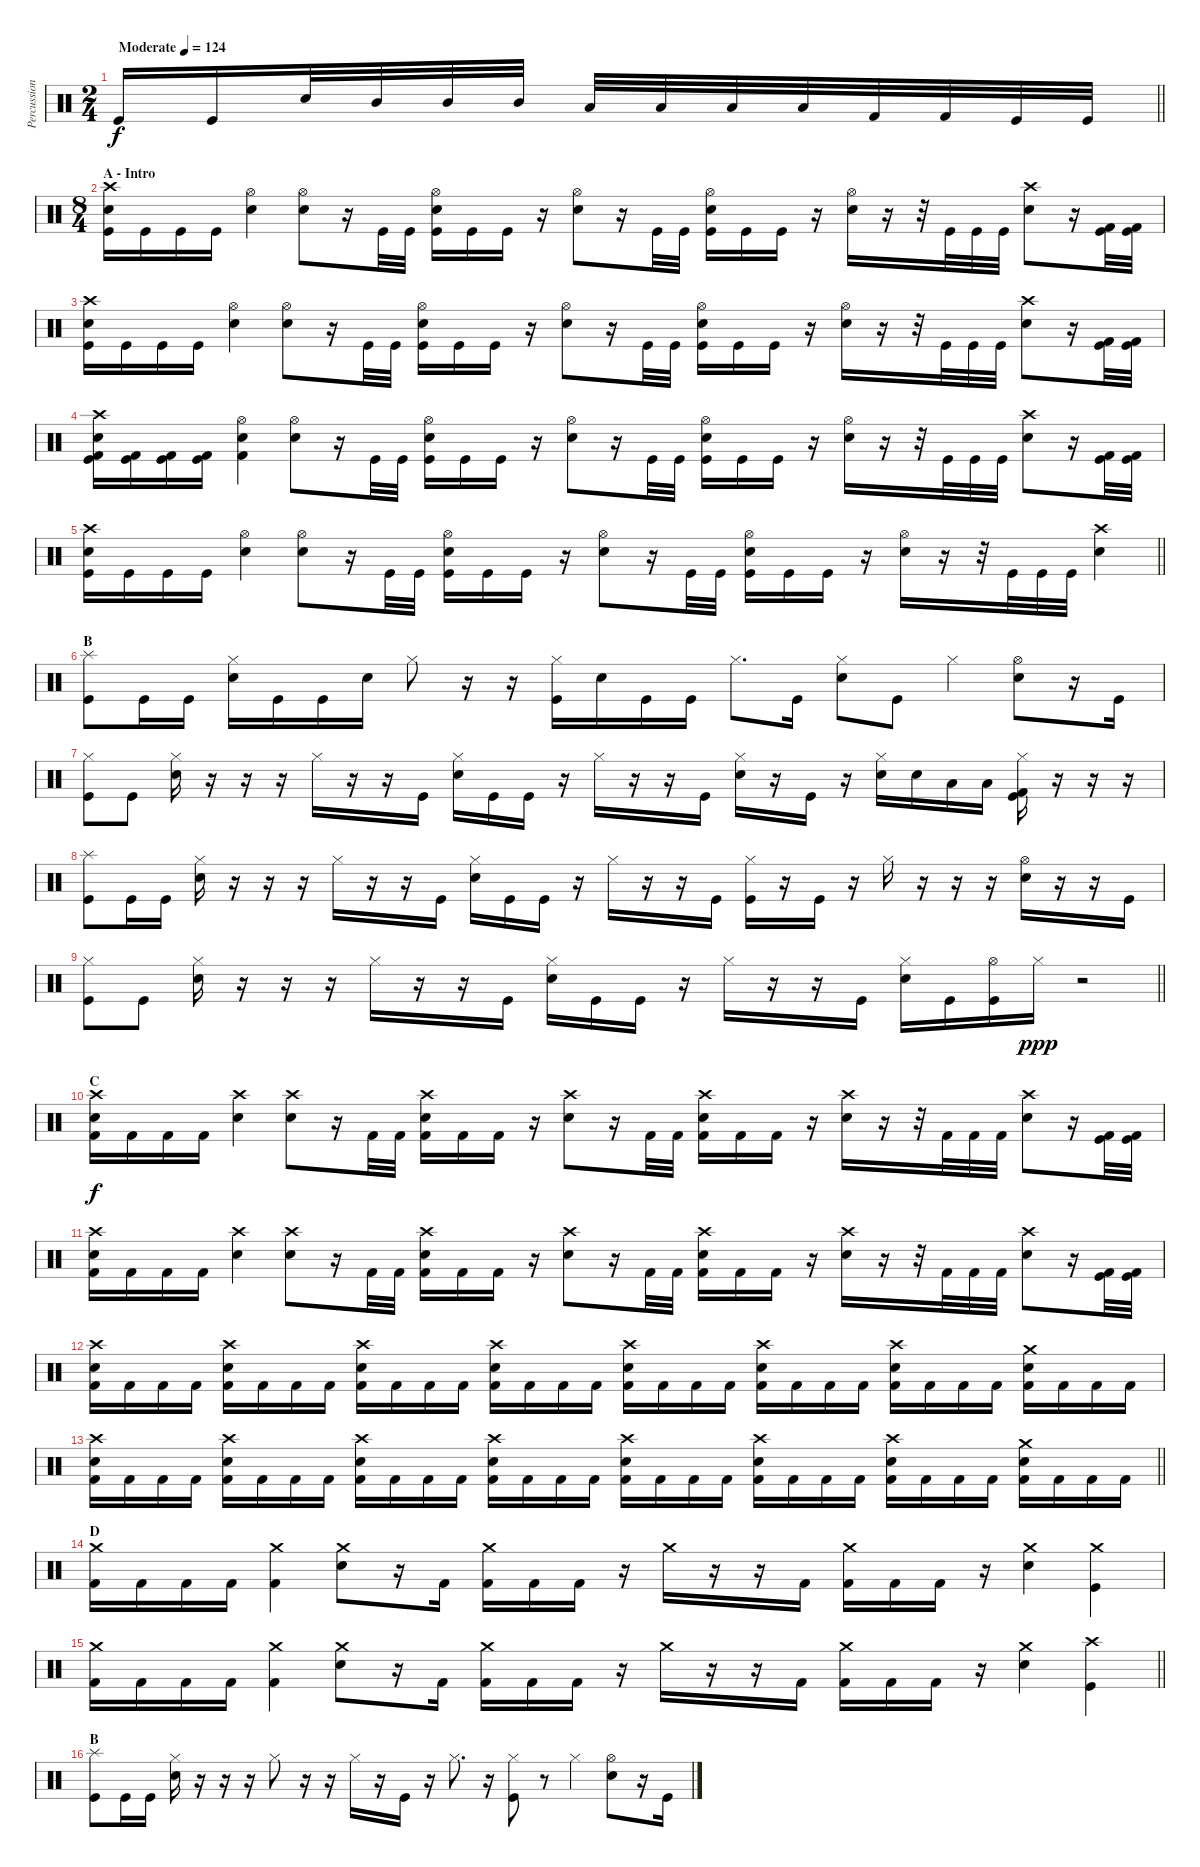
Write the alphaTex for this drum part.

\track ("Percussions" "Percussion") {instrument percussion}
\staff {score}
\articulation defaults
\ts (2 4)
\tempo (124 "Moderate")
\clef neutral
\barLineRight lightlight
\ks c "Kick (hit)".16{dy f} "Kick (hit)".16 "Snare (hit) 2".32 "Mid Tom (hit)".32 "Mid Tom (hit)".32 "Mid Tom (hit)".32 "Low Tom (hit)".32 "Low Tom (hit)".32 "Low Floor Tom (hit)".32 "Low Floor Tom (hit)".32 "Kick (hit) 2".32 "Kick (hit) 2".32 "Kick (hit)".32 "Kick (hit)".32
|
\ts (8 4)
\section ("" "A - Intro")
("Crash high (hit)" "Snare (hit) 2" "Kick (hit)").16 "Kick (hit)".16 "Kick (hit)".16 "Kick (hit)".16 ("Hi-Hat (open)" "Snare (hit) 2").4 ("Hi-Hat (open)" "Snare (hit) 2").8 r.16 "Kick (hit)".32 "Kick (hit)".32 ("Hi-Hat (open)" "Snare (hit) 2" "Kick (hit)").16 "Kick (hit)".16 "Kick (hit)".16 r.16 ("Hi-Hat (open)" "Snare (hit) 2").8 r.16 "Kick (hit)".32 "Kick (hit)".32 ("Hi-Hat (open)" "Snare (hit) 2" "Kick (hit)").16 "Kick (hit)".16 "Kick (hit)".16 r.16 ("Hi-Hat (open)" "Snare (hit) 2").16 r.16 r.32 "Kick (hit)".32 "Kick (hit)".32 "Kick (hit)".32 ("Crash high (hit)" "Snare (hit) 2").8 r.16 ("Kick (hit)" "Kick (hit) 2").32 ("Kick (hit)" "Kick (hit) 2").32 |
("Crash high (hit)" "Snare (hit) 2" "Kick (hit)").16 "Kick (hit)".16 "Kick (hit)".16 "Kick (hit)".16 ("Hi-Hat (open)" "Snare (hit) 2").4 ("Hi-Hat (open)" "Snare (hit) 2").8 r.16 "Kick (hit)".32 "Kick (hit)".32 ("Hi-Hat (open)" "Snare (hit) 2" "Kick (hit)").16 "Kick (hit)".16 "Kick (hit)".16 r.16 ("Hi-Hat (open)" "Snare (hit) 2").8 r.16 "Kick (hit)".32 "Kick (hit)".32 ("Hi-Hat (open)" "Snare (hit) 2" "Kick (hit)").16 "Kick (hit)".16 "Kick (hit)".16 r.16 ("Hi-Hat (open)" "Snare (hit) 2").16 r.16 r.32 "Kick (hit)".32 "Kick (hit)".32 "Kick (hit)".32 ("Crash high (hit)" "Snare (hit) 2").8 r.16 ("Kick (hit)" "Kick (hit) 2").32 ("Kick (hit)" "Kick (hit) 2").32 |
("Crash high (hit)" "Snare (hit) 2" "Kick (hit)" "Kick (hit) 2").16 ("Kick (hit)" "Kick (hit) 2").16 ("Kick (hit)" "Kick (hit) 2").16 ("Kick (hit)" "Kick (hit) 2").16 ("Hi-Hat (open)" "Snare (hit) 2" "Kick (hit) 2").4 ("Hi-Hat (open)" "Snare (hit) 2").8 r.16 "Kick (hit)".32 "Kick (hit)".32 ("Hi-Hat (open)" "Snare (hit) 2" "Kick (hit)").16 "Kick (hit)".16 "Kick (hit)".16 r.16 ("Hi-Hat (open)" "Snare (hit) 2").8 r.16 "Kick (hit)".32 "Kick (hit)".32 ("Hi-Hat (open)" "Snare (hit) 2" "Kick (hit)").16 "Kick (hit)".16 "Kick (hit)".16 r.16 ("Hi-Hat (open)" "Snare (hit) 2").16 r.16 r.32 "Kick (hit)".32 "Kick (hit)".32 "Kick (hit)".32 ("Crash high (hit)" "Snare (hit) 2").8 r.16 ("Kick (hit)" "Kick (hit) 2").32 ("Kick (hit)" "Kick (hit) 2").32 |
\barLineRight lightlight
("Crash high (hit)" "Snare (hit) 2" "Kick (hit)").16 "Kick (hit)".16 "Kick (hit)".16 "Kick (hit)".16 ("Hi-Hat (open)" "Snare (hit) 2").4 ("Hi-Hat (open)" "Snare (hit) 2").8 r.16 "Kick (hit)".32 "Kick (hit)".32 ("Hi-Hat (open)" "Snare (hit) 2" "Kick (hit)").16 "Kick (hit)".16 "Kick (hit)".16 r.16 ("Hi-Hat (open)" "Snare (hit) 2").8 r.16 "Kick (hit)".32 "Kick (hit)".32 ("Hi-Hat (open)" "Snare (hit) 2" "Kick (hit)").16 "Kick (hit)".16 "Kick (hit)".16 r.16 ("Hi-Hat (open)" "Snare (hit) 2").16 r.16 r.32 "Kick (hit)".32 "Kick (hit)".32 "Kick (hit)".32 ("Crash high (hit)" "Snare (hit) 2").4 |
\section ("" "B")
("Splash (hit)" "Kick (hit)").8 "Kick (hit)".16 "Kick (hit)".16 ("Hi-Hat (closed)" "Snare (hit) 2").16 "Kick (hit)".16 "Kick (hit)".16 "Snare (hit) 2".16 "Hi-Hat (closed)".8 r.16 r.16 ("Hi-Hat (closed)" "Kick (hit)").16 "Snare (hit) 2".16 "Kick (hit)".16 "Kick (hit)".16 "Hi-Hat (closed)".8{d} "Kick (hit)".16 ("Hi-Hat (closed)" "Snare (hit) 2").8 "Kick (hit)".8 "Hi-Hat (closed)".4 ("Hi-Hat (open)" "Snare (hit) 2").8 r.16 "Kick (hit)".16 |
("Hi-Hat (closed)" "Kick (hit)").8 "Kick (hit)".8 ("Hi-Hat (closed)" "Snare (hit) 2").16 r.16 r.16 r.16 "Hi-Hat (closed)".16 r.16 r.16 "Kick (hit)".16 ("Hi-Hat (closed)" "Snare (hit) 2").16 "Kick (hit)".16 "Kick (hit)".16 r.16 "Hi-Hat (closed)".16 r.16 r.16 "Kick (hit)".16 ("Hi-Hat (closed)" "Snare (hit) 2").16 r.16 "Kick (hit)".16 r.16 ("Hi-Hat (closed)" "Snare (hit) 2").16 "Snare (hit) 2".16 "Low Tom (hit)".16 "Low Floor Tom (hit)".16 ("Hi-Hat (closed)" "Kick (hit) 2" "Kick (hit)").16 r.16 r.16 r.16 |
("Splash (hit)" "Kick (hit)").8 "Kick (hit)".16 "Kick (hit)".16 ("Hi-Hat (closed)" "Snare (hit) 2").16 r.16 r.16 r.16 "Hi-Hat (closed)".16 r.16 r.16 "Kick (hit)".16 ("Hi-Hat (closed)" "Snare (hit) 2").16 "Kick (hit)".16 "Kick (hit)".16 r.16 "Hi-Hat (closed)".16 r.16 r.16 "Kick (hit)".16 ("Hi-Hat (closed)" "Kick (hit)").16 r.16 "Kick (hit)".16 r.16 "Hi-Hat (closed)".16 r.16 r.16 r.16 ("Hi-Hat (open)" "Snare (hit) 2").16 r.16 r.16 "Kick (hit)".16 |
\barLineRight lightlight
("Hi-Hat (closed)" "Kick (hit)").8 "Kick (hit)".8 ("Hi-Hat (closed)" "Snare (hit) 2").16 r.16 r.16 r.16 "Hi-Hat (closed)".16 r.16 r.16 "Kick (hit)".16 ("Hi-Hat (closed)" "Snare (hit) 2").16 "Kick (hit)".16 "Kick (hit)".16 r.16 "Hi-Hat (closed)".16 r.16 r.16 "Kick (hit)".16 ("Hi-Hat (closed)" "Snare (hit) 2").16 "Kick (hit)".16 ("Hi-Hat (open)" "Kick (hit)").16 "Hi-Hat (closed)".16{dy ppp} r.2 |
\section ("" "C")
("Crash high (hit)" "Snare (hit) 2" "Kick (hit) 2").16{dy f} "Kick (hit) 2".16 "Kick (hit) 2".16 "Kick (hit) 2".16 ("Crash high (hit)" "Snare (hit) 2").4 ("Crash high (hit)" "Snare (hit) 2").8 r.16 "Kick (hit) 2".32 "Kick (hit) 2".32 ("Crash high (hit)" "Snare (hit) 2" "Kick (hit) 2").16 "Kick (hit) 2".16 "Kick (hit) 2".16 r.16 ("Crash high (hit)" "Snare (hit) 2").8 r.16 "Kick (hit) 2".32 "Kick (hit) 2".32 ("Crash high (hit)" "Snare (hit) 2" "Kick (hit) 2").16 "Kick (hit) 2".16 "Kick (hit) 2".16 r.16 ("Crash high (hit)" "Snare (hit) 2").16 r.16 r.32 "Kick (hit) 2".32 "Kick (hit) 2".32 "Kick (hit) 2".32 ("Crash high (hit)" "Snare (hit) 2").8 r.16 ("Kick (hit)" "Kick (hit) 2").32 ("Kick (hit)" "Kick (hit) 2").32 |
("Crash high (hit)" "Snare (hit) 2" "Kick (hit) 2").16 "Kick (hit) 2".16 "Kick (hit) 2".16 "Kick (hit) 2".16 ("Crash high (hit)" "Snare (hit) 2").4 ("Crash high (hit)" "Snare (hit) 2").8 r.16 "Kick (hit) 2".32 "Kick (hit) 2".32 ("Crash high (hit)" "Snare (hit) 2" "Kick (hit) 2").16 "Kick (hit) 2".16 "Kick (hit) 2".16 r.16 ("Crash high (hit)" "Snare (hit) 2").8 r.16 "Kick (hit) 2".32 "Kick (hit) 2".32 ("Crash high (hit)" "Snare (hit) 2" "Kick (hit) 2").16 "Kick (hit) 2".16 "Kick (hit) 2".16 r.16 ("Crash high (hit)" "Snare (hit) 2").16 r.16 r.32 "Kick (hit) 2".32 "Kick (hit) 2".32 "Kick (hit) 2".32 ("Crash high (hit)" "Snare (hit) 2").8 r.16 ("Kick (hit)" "Kick (hit) 2").32 ("Kick (hit)" "Kick (hit) 2").32 |
("Crash high (hit)" "Snare (hit) 2" "Kick (hit) 2").16 "Kick (hit) 2".16 "Kick (hit) 2".16 "Kick (hit) 2".16 ("Crash high (hit)" "Snare (hit) 2" "Kick (hit) 2").16 "Kick (hit) 2".16 "Kick (hit) 2".16 "Kick (hit) 2".16 ("Crash high (hit)" "Snare (hit) 2" "Kick (hit) 2").16 "Kick (hit) 2".16 "Kick (hit) 2".16 "Kick (hit) 2".16 ("Crash high (hit)" "Snare (hit) 2" "Kick (hit) 2").16 "Kick (hit) 2".16 "Kick (hit) 2".16 "Kick (hit) 2".16 ("Crash high (hit)" "Snare (hit) 2" "Kick (hit) 2").16 "Kick (hit) 2".16 "Kick (hit) 2".16 "Kick (hit) 2".16 ("Crash high (hit)" "Snare (hit) 2" "Kick (hit) 2").16 "Kick (hit) 2".16 "Kick (hit) 2".16 "Kick (hit) 2".16 ("Crash high (hit)" "Snare (hit) 2" "Kick (hit) 2").16 "Kick (hit) 2".16 "Kick (hit) 2".16 "Kick (hit) 2".16 ("Crash medium (hit)" "Snare (hit) 2" "Kick (hit) 2").16 "Kick (hit) 2".16 "Kick (hit) 2".16 "Kick (hit) 2".16 |
\barLineRight lightlight
("Crash high (hit)" "Snare (hit) 2" "Kick (hit) 2").16 "Kick (hit) 2".16 "Kick (hit) 2".16 "Kick (hit) 2".16 ("Crash high (hit)" "Snare (hit) 2" "Kick (hit) 2").16 "Kick (hit) 2".16 "Kick (hit) 2".16 "Kick (hit) 2".16 ("Crash high (hit)" "Snare (hit) 2" "Kick (hit) 2").16 "Kick (hit) 2".16 "Kick (hit) 2".16 "Kick (hit) 2".16 ("Crash high (hit)" "Snare (hit) 2" "Kick (hit) 2").16 "Kick (hit) 2".16 "Kick (hit) 2".16 "Kick (hit) 2".16 ("Crash high (hit)" "Snare (hit) 2" "Kick (hit) 2").16 "Kick (hit) 2".16 "Kick (hit) 2".16 "Kick (hit) 2".16 ("Crash high (hit)" "Snare (hit) 2" "Kick (hit) 2").16 "Kick (hit) 2".16 "Kick (hit) 2".16 "Kick (hit) 2".16 ("Crash high (hit)" "Snare (hit) 2" "Kick (hit) 2").16 "Kick (hit) 2".16 "Kick (hit) 2".16 "Kick (hit) 2".16 ("Crash medium (hit)" "Snare (hit) 2" "Kick (hit) 2").16 "Kick (hit) 2".16 "Kick (hit) 2".16 "Kick (hit) 2".16 |
\section ("" "D")
("Crash medium (hit)" "Kick (hit) 2").16 "Kick (hit) 2".16 "Kick (hit) 2".16 "Kick (hit) 2".16 ("Crash medium (hit)" "Kick (hit) 2").4 ("Crash medium (hit)" "Snare (hit) 2").8 r.16 "Kick (hit) 2".16 ("Crash medium (hit)" "Kick (hit) 2").16 "Kick (hit) 2".16 "Kick (hit) 2".16 r.16 "Crash medium (hit)".16 r.16 r.16 "Kick (hit) 2".16 ("Crash medium (hit)" "Kick (hit) 2").16 "Kick (hit) 2".16 "Kick (hit) 2".16 r.16 ("Crash medium (hit)" "Snare (hit) 2").4 ("Crash medium (hit)" "Kick (hit)").4 |
\barLineRight lightlight
("Crash medium (hit)" "Kick (hit) 2").16 "Kick (hit) 2".16 "Kick (hit) 2".16 "Kick (hit) 2".16 ("Crash medium (hit)" "Kick (hit) 2").4 ("Crash medium (hit)" "Snare (hit) 2").8 r.16 "Kick (hit) 2".16 ("Crash medium (hit)" "Kick (hit) 2").16 "Kick (hit) 2".16 "Kick (hit) 2".16 r.16 "Crash medium (hit)".16 r.16 r.16 "Kick (hit) 2".16 ("Crash medium (hit)" "Kick (hit) 2").16 "Kick (hit) 2".16 "Kick (hit) 2".16 r.16 ("Crash medium (hit)" "Snare (hit) 2").4 ("Crash high (hit)" "Kick (hit)").4 |
\section ("" "B")
("Splash (hit)" "Kick (hit)").8 "Kick (hit)".16 "Kick (hit)".16 ("Hi-Hat (closed)" "Snare (hit) 2").16 r.16 r.16 r.16 "Hi-Hat (closed)".8 r.16 r.16 "Hi-Hat (closed)".16 r.16 "Kick (hit)".16 r.16 "Hi-Hat (closed)".8{d} r.16 ("Hi-Hat (closed)" "Kick (hit)").8 r.8 "Hi-Hat (closed)".4 ("Hi-Hat (open)" "Snare (hit) 2").8 r.16 "Kick (hit)".16
